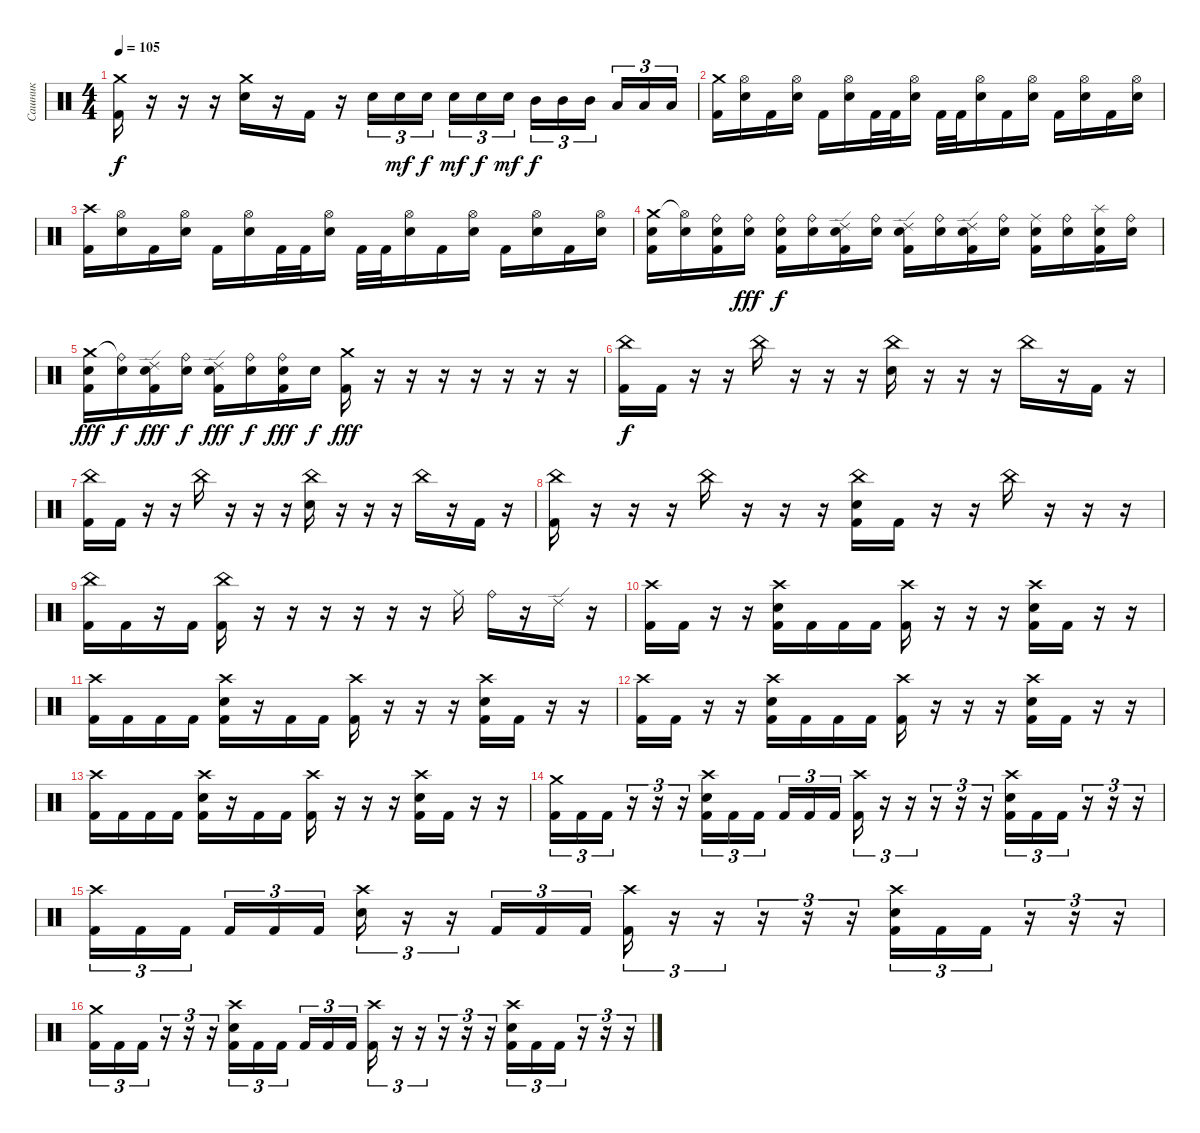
\track ("Сашник" "Сашник") {instrument percussion}
\staff {score}
\articulation defaults
\ts (4 4)
\tempo 105
\clef neutral
\ks c
("Crash medium (hit)" "Kick (hit) 2").16{dy f} r.16 r.16 r.16 ("Crash medium (hit)" "Electric Snare (hit)").16 r.16 "Kick (hit) 2".16 r.16 "Electric Snare (hit)".16{tu (3 2)} "Electric Snare (hit)".16{tu (3 2) dy mf} "Electric Snare (hit)".16{tu (3 2) dy f beam splitsecondary} "Electric Snare (hit)".16{tu (3 2) dy mf} "Electric Snare (hit)".16{tu (3 2) dy f} "Electric Snare (hit)".16{tu (3 2) dy mf} "Mid Tom (hit)".16{tu (3 2) dy f} "Mid Tom (hit)".16{tu (3 2)} "Mid Tom (hit)".16{tu (3 2) beam splitsecondary} "Low Tom (hit)".16{tu (3 2)} "Low Tom (hit)".16{tu (3 2)} "Low Tom (hit)".16{tu (3 2)} |
("Crash medium (hit)" "Kick (hit) 2").16 ("Hi-Hat (open)" "Electric Snare (hit)").16 "Kick (hit) 2".16 ("Hi-Hat (open)" "Electric Snare (hit)").16 "Kick (hit) 2".16 ("Hi-Hat (open)" "Electric Snare (hit)").16 "Kick (hit) 2".32 "Kick (hit) 2".32 ("Hi-Hat (open)" "Electric Snare (hit)").16 "Kick (hit) 2".32 "Kick (hit) 2".32 ("Hi-Hat (open)" "Electric Snare (hit)").16 "Kick (hit) 2".16 ("Hi-Hat (open)" "Electric Snare (hit)").16 "Kick (hit) 2".16 ("Hi-Hat (open)" "Electric Snare (hit)").16 "Kick (hit) 2".16 ("Hi-Hat (open)" "Electric Snare (hit)").16 |
("Crash high (hit)" "Kick (hit) 2").16 ("Hi-Hat (open)" "Electric Snare (hit)").16 "Kick (hit) 2".16 ("Hi-Hat (open)" "Electric Snare (hit)").16 "Kick (hit) 2".16 ("Hi-Hat (open)" "Electric Snare (hit)").16 "Kick (hit) 2".32 "Kick (hit) 2".32 ("Hi-Hat (open)" "Electric Snare (hit)").16 "Kick (hit) 2".32 "Kick (hit) 2".32 ("Hi-Hat (open)" "Electric Snare (hit)").16 "Kick (hit) 2".16 ("Hi-Hat (open)" "Electric Snare (hit)").16 "Kick (hit) 2".16 ("Hi-Hat (open)" "Electric Snare (hit)").16 "Kick (hit) 2".16 ("Hi-Hat (open)" "Electric Snare (hit)").16 |
("Crash medium (hit)" "Electric Snare (hit)" "Kick (hit) 2").16 ("Hi-Hat (open)"{t} "Electric Snare (hit)").16 ("Ride (bell)" "Electric Snare (hit)" "Kick (hit) 2").16 ("Ride (bell)" "Electric Snare (hit)").16{dy fff} ("Ride (bell)" "Electric Snare (hit)" "Kick (hit) 2").16{dy f} ("Ride (bell)" "Electric Snare (hit)").16 ("Ride (edge) 2" "Electric Snare (hit)" "Kick (hit) 2").16 ("Ride (bell)" "Electric Snare (hit)").16 ("Ride (edge) 2" "Electric Snare (hit)" "Kick (hit) 2").16 ("Ride (bell)" "Electric Snare (hit)").16 ("Ride (edge) 2" "Electric Snare (hit)" "Kick (hit) 2").16 ("Ride (bell)" "Electric Snare (hit)").16 ("Ride (middle)" "Electric Snare (hit)" "Kick (hit) 2").16 ("Ride (bell)" "Electric Snare (hit)").16 ("Splash (hit)" "Electric Snare (hit)" "Kick (hit) 2").16 ("Ride (bell)" "Electric Snare (hit)").16 |
("Crash medium (hit)" "Electric Snare (hit)" "Kick (hit) 2").16{dy fff} ("Ride (bell)"{t} "Electric Snare (hit)").16{dy f} ("Ride (edge) 2" "Electric Snare (hit)" "Kick (hit) 2").16{dy fff} ("Ride (bell)" "Electric Snare (hit)").16{dy f} ("Ride (edge) 2" "Electric Snare (hit)" "Kick (hit) 2").16{dy fff} ("Ride (bell)" "Electric Snare (hit)").16{dy f} ("Ride (bell)" "Electric Snare (hit)" "Kick (hit) 2").16{dy fff} "Electric Snare (hit)".16{dy f} ("Crash medium (hit)" "Kick (hit) 2").16{dy fff} r.16{volume 0} r.16 r.16 r.16 r.16 r.16 r.16 |
("China (hit)" "Kick (hit) 2").16{dy f volume 13} "Kick (hit) 2".16 r.16 r.16 "China (hit)".16 r.16 r.16 r.16 ("China (hit)" "Electric Snare (hit)").16 r.16 r.16 r.16 "China (hit)".16 r.16 "Kick (hit) 2".16 r.16 |
("China (hit)" "Kick (hit) 2").16{volume 13} "Kick (hit) 2".16 r.16 r.16 "China (hit)".16 r.16 r.16 r.16 ("China (hit)" "Electric Snare (hit)").16 r.16 r.16 r.16 "China (hit)".16 r.16 "Kick (hit) 2".16 r.16 |
("China (hit)" "Kick (hit) 2").16 r.16 r.16 r.16 "China (hit)".16 r.16 r.16 r.16 ("China (hit)" "Electric Snare (hit)" "Kick (hit) 2").16 "Kick (hit) 2".16 r.16 r.16 "China (hit)".16 r.16 r.16 r.16 |
("China (hit)" "Kick (hit) 2").16 "Kick (hit) 2".16 r.16 "Kick (hit) 2".16 ("China (hit)" "Kick (hit) 2").16 r.16 r.16 r.16 r.16 r.16 r.16 "Ride (middle)".16 "Ride (bell)".16 r.16 "Ride (edge) 2".16 r.16 |
("Crash high (hit)" "Kick (hit) 2").16 "Kick (hit) 2".16 r.16 r.16 ("Crash high (hit)" "Electric Snare (hit)" "Kick (hit) 2").16 "Kick (hit) 2".16 "Kick (hit) 2".16 "Kick (hit) 2".16 ("Crash high (hit)" "Kick (hit) 2").16 r.16 r.16 r.16 ("Crash high (hit)" "Electric Snare (hit)" "Kick (hit) 2").16 "Kick (hit) 2".16 r.16 r.16 |
("Crash high (hit)" "Kick (hit) 2").16 "Kick (hit) 2".16 "Kick (hit) 2".16 "Kick (hit) 2".16 ("Crash high (hit)" "Electric Snare (hit)" "Kick (hit) 2").16 r.16 "Kick (hit) 2".16 "Kick (hit) 2".16 ("Crash high (hit)" "Kick (hit) 2").16 r.16 r.16 r.16 ("Crash high (hit)" "Electric Snare (hit)" "Kick (hit) 2").16 "Kick (hit) 2".16 r.16 r.16 |
("Crash high (hit)" "Kick (hit) 2").16 "Kick (hit) 2".16 r.16 r.16 ("Crash high (hit)" "Electric Snare (hit)" "Kick (hit) 2").16 "Kick (hit) 2".16 "Kick (hit) 2".16 "Kick (hit) 2".16 ("Crash high (hit)" "Kick (hit) 2").16 r.16 r.16 r.16 ("Crash high (hit)" "Electric Snare (hit)" "Kick (hit) 2").16 "Kick (hit) 2".16 r.16 r.16 |
("Crash high (hit)" "Kick (hit) 2").16 "Kick (hit) 2".16 "Kick (hit) 2".16 "Kick (hit) 2".16 ("Crash high (hit)" "Electric Snare (hit)" "Kick (hit) 2").16 r.16 "Kick (hit) 2".16 "Kick (hit) 2".16 ("Crash high (hit)" "Kick (hit) 2").16 r.16 r.16 r.16 ("Crash high (hit)" "Electric Snare (hit)" "Kick (hit) 2").16 "Kick (hit) 2".16 r.16 r.16 |
("Crash medium (hit)" "Kick (hit) 2").16{tu (3 2)} "Kick (hit) 2".16{tu (3 2)} "Kick (hit) 2".16{tu (3 2)} r.16{tu (3 2)} r.16{tu (3 2)} r.16{tu (3 2)} ("Crash high (hit)" "Electric Snare (hit)" "Kick (hit) 2").16{tu (3 2)} "Kick (hit) 2".16{tu (3 2)} "Kick (hit) 2".16{tu (3 2) beam splitsecondary} "Kick (hit) 2".16{tu (3 2)} "Kick (hit) 2".16{tu (3 2)} "Kick (hit) 2".16{tu (3 2)} ("Crash high (hit)" "Kick (hit) 2").16{tu (3 2)} r.16{tu (3 2)} r.16{tu (3 2)} r.16{tu (3 2)} r.16{tu (3 2)} r.16{tu (3 2)} ("Crash high (hit)" "Electric Snare (hit)" "Kick (hit) 2").16{tu (3 2)} "Kick (hit) 2".16{tu (3 2)} "Kick (hit) 2".16{tu (3 2)} r.16{tu (3 2)} r.16{tu (3 2)} r.16{tu (3 2)} |
("Crash high (hit)" "Kick (hit) 2").16{tu (3 2)} "Kick (hit) 2".16{tu (3 2)} "Kick (hit) 2".16{tu (3 2) beam splitsecondary} "Kick (hit) 2".16{tu (3 2)} "Kick (hit) 2".16{tu (3 2)} "Kick (hit) 2".16{tu (3 2)} ("Crash high (hit)" "Electric Snare (hit)").16{tu (3 2)} r.16{tu (3 2)} r.16{tu (3 2)} "Kick (hit) 2".16{tu (3 2)} "Kick (hit) 2".16{tu (3 2)} "Kick (hit) 2".16{tu (3 2)} ("Crash high (hit)" "Kick (hit) 2").16{tu (3 2)} r.16{tu (3 2)} r.16{tu (3 2)} r.16{tu (3 2)} r.16{tu (3 2)} r.16{tu (3 2)} ("Crash high (hit)" "Electric Snare (hit)" "Kick (hit) 2").16{tu (3 2)} "Kick (hit) 2".16{tu (3 2)} "Kick (hit) 2".16{tu (3 2)} r.16{tu (3 2)} r.16{tu (3 2)} r.16{tu (3 2)} |
("Crash medium (hit)" "Kick (hit) 2").16{tu (3 2)} "Kick (hit) 2".16{tu (3 2)} "Kick (hit) 2".16{tu (3 2)} r.16{tu (3 2)} r.16{tu (3 2)} r.16{tu (3 2)} ("Crash high (hit)" "Electric Snare (hit)" "Kick (hit) 2").16{tu (3 2)} "Kick (hit) 2".16{tu (3 2)} "Kick (hit) 2".16{tu (3 2) beam splitsecondary} "Kick (hit) 2".16{tu (3 2)} "Kick (hit) 2".16{tu (3 2)} "Kick (hit) 2".16{tu (3 2)} ("Crash high (hit)" "Kick (hit) 2").16{tu (3 2)} r.16{tu (3 2)} r.16{tu (3 2)} r.16{tu (3 2)} r.16{tu (3 2)} r.16{tu (3 2)} ("Crash high (hit)" "Electric Snare (hit)" "Kick (hit) 2").16{tu (3 2)} "Kick (hit) 2".16{tu (3 2)} "Kick (hit) 2".16{tu (3 2)} r.16{tu (3 2)} r.16{tu (3 2)} r.16{tu (3 2)}
